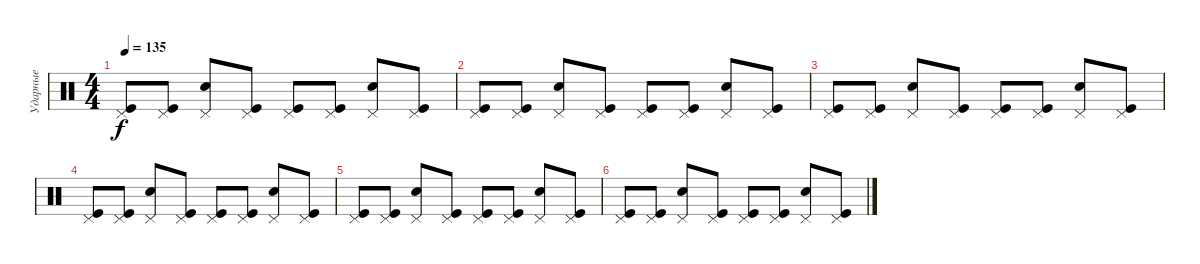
\track ("Ударные" "Ударные") {instrument percussion}
\staff {score}
\articulation defaults
\ts (4 4)
\tempo 135
\clef neutral
\ks c
("Pedal Hi-Hat (hit)" "Kick (hit)").8{dy f} ("Pedal Hi-Hat (hit)" "Kick (hit)").8 ("Pedal Hi-Hat (hit)" "Electric Snare (hit)").8 ("Pedal Hi-Hat (hit)" "Kick (hit)").8 ("Pedal Hi-Hat (hit)" "Kick (hit)").8 ("Pedal Hi-Hat (hit)" "Kick (hit)").8 ("Pedal Hi-Hat (hit)" "Electric Snare (hit)").8 ("Pedal Hi-Hat (hit)" "Kick (hit)").8 |
("Pedal Hi-Hat (hit)" "Kick (hit)").8 ("Pedal Hi-Hat (hit)" "Kick (hit)").8 ("Pedal Hi-Hat (hit)" "Electric Snare (hit)").8 ("Pedal Hi-Hat (hit)" "Kick (hit)").8 ("Pedal Hi-Hat (hit)" "Kick (hit)").8 ("Pedal Hi-Hat (hit)" "Kick (hit)").8 ("Pedal Hi-Hat (hit)" "Electric Snare (hit)").8 ("Pedal Hi-Hat (hit)" "Kick (hit)").8 |
("Pedal Hi-Hat (hit)" "Kick (hit)").8 ("Pedal Hi-Hat (hit)" "Kick (hit)").8 ("Pedal Hi-Hat (hit)" "Electric Snare (hit)").8 ("Pedal Hi-Hat (hit)" "Kick (hit)").8 ("Pedal Hi-Hat (hit)" "Kick (hit)").8 ("Pedal Hi-Hat (hit)" "Kick (hit)").8 ("Pedal Hi-Hat (hit)" "Electric Snare (hit)").8 ("Pedal Hi-Hat (hit)" "Kick (hit)").8 |
("Pedal Hi-Hat (hit)" "Kick (hit)").8 ("Pedal Hi-Hat (hit)" "Kick (hit)").8 ("Pedal Hi-Hat (hit)" "Electric Snare (hit)").8 ("Pedal Hi-Hat (hit)" "Kick (hit)").8 ("Pedal Hi-Hat (hit)" "Kick (hit)").8 ("Pedal Hi-Hat (hit)" "Kick (hit)").8 ("Pedal Hi-Hat (hit)" "Electric Snare (hit)").8 ("Pedal Hi-Hat (hit)" "Kick (hit)").8 |
("Pedal Hi-Hat (hit)" "Kick (hit)").8 ("Pedal Hi-Hat (hit)" "Kick (hit)").8 ("Pedal Hi-Hat (hit)" "Electric Snare (hit)").8 ("Pedal Hi-Hat (hit)" "Kick (hit)").8 ("Pedal Hi-Hat (hit)" "Kick (hit)").8 ("Pedal Hi-Hat (hit)" "Kick (hit)").8 ("Pedal Hi-Hat (hit)" "Electric Snare (hit)").8 ("Pedal Hi-Hat (hit)" "Kick (hit)").8 |
("Pedal Hi-Hat (hit)" "Kick (hit)").8 ("Pedal Hi-Hat (hit)" "Kick (hit)").8 ("Pedal Hi-Hat (hit)" "Electric Snare (hit)").8 ("Pedal Hi-Hat (hit)" "Kick (hit)").8 ("Pedal Hi-Hat (hit)" "Kick (hit)").8 ("Pedal Hi-Hat (hit)" "Kick (hit)").8 ("Pedal Hi-Hat (hit)" "Electric Snare (hit)").8 ("Pedal Hi-Hat (hit)" "Kick (hit)").8
